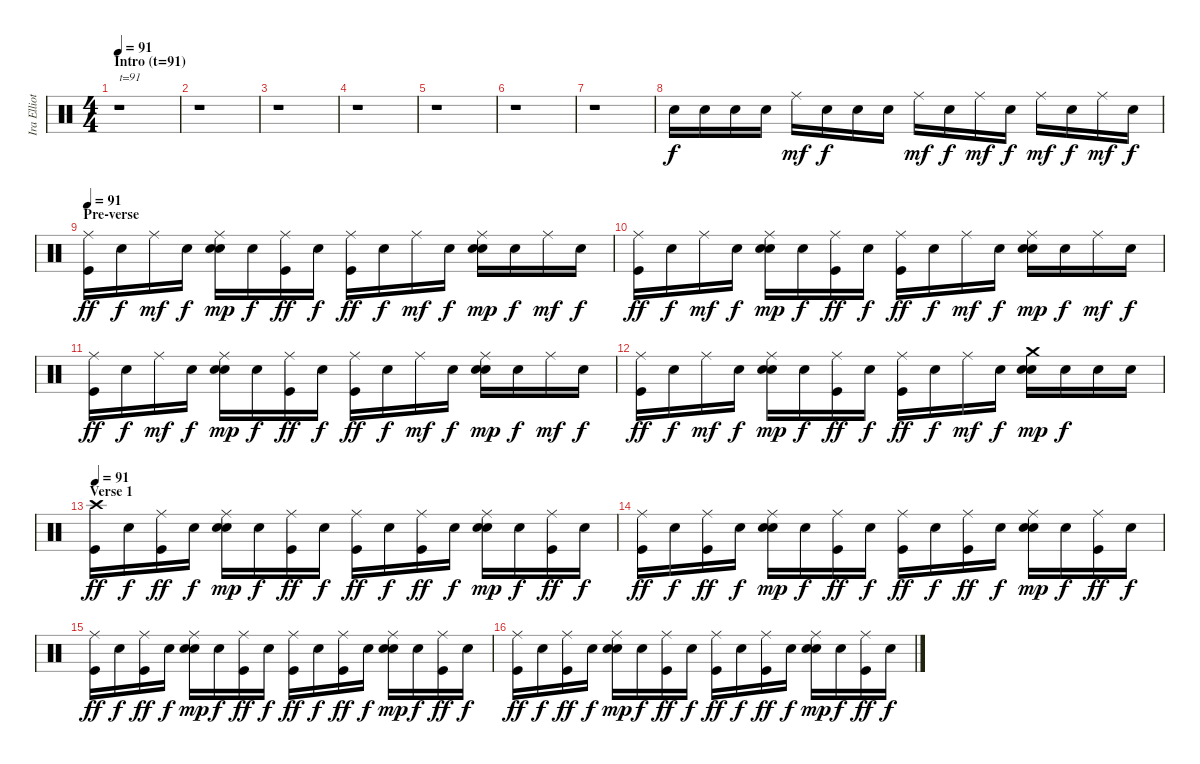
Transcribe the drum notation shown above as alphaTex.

\track ("Ira Elliot - Drums" "Ira Elliot") {instrument percussion}
\staff {score}
\articulation defaults
\ts (4 4)
\section ("" "Intro (t=91)")
\tempo 91
\clef neutral
\ks c
r.1{txt "t=91" dy f volume 16 balance 8} |
r.1 |
r.1 |
r.1 |
\section ("" "")
r.1 |
r.1 |
r.1 |
"Snare (hit)".16 "Snare (hit)".16 "Snare (hit)".16 "Snare (hit)".16 "Ride (middle)".16{dy mf} "Snare (hit)".16{dy f} "Snare (hit)".16 "Snare (hit)".16 "Ride (middle)".16{dy mf} "Snare (hit)".16{dy f} "Ride (middle)".16{dy mf} "Snare (hit)".16{dy f} "Ride (middle)".16{dy mf} "Snare (hit)".16{dy f} "Ride (middle)".16{dy mf} "Snare (hit)".16{dy f} |
\section ("" "Pre-verse")
\tempo 91
("Ride (middle)" "Kick (hit)").16{dy ff volume 16 balance 8} "Snare (hit)".16{dy f} "Ride (middle)".16{dy mf} "Snare (hit)".16{dy f} ("Ride (middle)" "Electric Snare (hit)" "Snare (hit) 2").16{dy mp} "Snare (hit)".16{dy f} ("Ride (middle)" "Kick (hit)").16{dy ff} "Snare (hit)".16{dy f} ("Ride (middle)" "Kick (hit)").16{dy ff} "Snare (hit)".16{dy f} "Ride (middle)".16{dy mf} "Snare (hit)".16{dy f} ("Ride (middle)" "Electric Snare (hit)" "Snare (hit) 2").16{dy mp} "Snare (hit)".16{dy f} "Ride (middle)".16{dy mf} "Snare (hit)".16{dy f} |
("Ride (middle)" "Kick (hit)").16{dy ff} "Snare (hit)".16{dy f} "Ride (middle)".16{dy mf} "Snare (hit)".16{dy f} ("Ride (middle)" "Electric Snare (hit)" "Snare (hit) 2").16{dy mp} "Snare (hit)".16{dy f} ("Ride (middle)" "Kick (hit)").16{dy ff} "Snare (hit)".16{dy f} ("Ride (middle)" "Kick (hit)").16{dy ff} "Snare (hit)".16{dy f} "Ride (middle)".16{dy mf} "Snare (hit)".16{dy f} ("Ride (middle)" "Electric Snare (hit)" "Snare (hit) 2").16{dy mp} "Snare (hit)".16{dy f} "Ride (middle)".16{dy mf} "Snare (hit)".16{dy f} |
("Ride (middle)" "Kick (hit)").16{dy ff} "Snare (hit)".16{dy f} "Ride (middle)".16{dy mf} "Snare (hit)".16{dy f} ("Ride (middle)" "Electric Snare (hit)" "Snare (hit) 2").16{dy mp} "Snare (hit)".16{dy f} ("Ride (middle)" "Kick (hit)").16{dy ff} "Snare (hit)".16{dy f} ("Ride (middle)" "Kick (hit)").16{dy ff} "Snare (hit)".16{dy f} "Ride (middle)".16{dy mf} "Snare (hit)".16{dy f} ("Ride (middle)" "Electric Snare (hit)" "Snare (hit) 2").16{dy mp} "Snare (hit)".16{dy f} "Ride (middle)".16{dy mf} "Snare (hit)".16{dy f} |
("Ride (middle)" "Kick (hit)").16{dy ff} "Snare (hit)".16{dy f} "Ride (middle)".16{dy mf} "Snare (hit)".16{dy f} ("Ride (middle)" "Electric Snare (hit)" "Snare (hit) 2").16{dy mp} "Snare (hit)".16{dy f} ("Ride (middle)" "Kick (hit)").16{dy ff} "Snare (hit)".16{dy f} ("Ride (middle)" "Kick (hit)").16{dy ff} "Snare (hit)".16{dy f} "Ride (middle)".16{dy mf} "Snare (hit)".16{dy f} ("Crash medium (hit)" "Electric Snare (hit)" "Snare (hit) 2").16{dy mp} "Snare (hit)".16{dy f} "Snare (hit)".16 "Snare (hit)".16 |
\section ("" "Verse 1")
\tempo 91
("Crash high (hit)" "Kick (hit)").16{dy ff volume 16 balance 8} "Snare (hit)".16{dy f} ("Ride (middle)" "Kick (hit)").16{dy ff} "Snare (hit)".16{dy f} ("Ride (middle)" "Electric Snare (hit)" "Snare (hit) 2").16{dy mp} "Snare (hit)".16{dy f} ("Ride (middle)" "Kick (hit)").16{dy ff} "Snare (hit)".16{dy f} ("Ride (middle)" "Kick (hit)").16{dy ff} "Snare (hit)".16{dy f} ("Ride (middle)" "Kick (hit)").16{dy ff} "Snare (hit)".16{dy f} ("Ride (middle)" "Electric Snare (hit)" "Snare (hit) 2").16{dy mp} "Snare (hit)".16{dy f} ("Ride (middle)" "Kick (hit)").16{dy ff} "Snare (hit)".16{dy f} |
("Ride (middle)" "Kick (hit)").16{dy ff} "Snare (hit)".16{dy f} ("Ride (middle)" "Kick (hit)").16{dy ff} "Snare (hit)".16{dy f} ("Ride (middle)" "Electric Snare (hit)" "Snare (hit) 2").16{dy mp} "Snare (hit)".16{dy f} ("Ride (middle)" "Kick (hit)").16{dy ff} "Snare (hit)".16{dy f} ("Ride (middle)" "Kick (hit)").16{dy ff} "Snare (hit)".16{dy f} ("Ride (middle)" "Kick (hit)").16{dy ff} "Snare (hit)".16{dy f} ("Ride (middle)" "Electric Snare (hit)" "Snare (hit) 2").16{dy mp} "Snare (hit)".16{dy f} ("Ride (middle)" "Kick (hit)").16{dy ff} "Snare (hit)".16{dy f} |
("Ride (middle)" "Kick (hit)").16{dy ff} "Snare (hit)".16{dy f} ("Ride (middle)" "Kick (hit)").16{dy ff} "Snare (hit)".16{dy f} ("Ride (middle)" "Electric Snare (hit)" "Snare (hit) 2").16{dy mp} "Snare (hit)".16{dy f} ("Ride (middle)" "Kick (hit)").16{dy ff} "Snare (hit)".16{dy f} ("Ride (middle)" "Kick (hit)").16{dy ff} "Snare (hit)".16{dy f} ("Ride (middle)" "Kick (hit)").16{dy ff} "Snare (hit)".16{dy f} ("Ride (middle)" "Electric Snare (hit)" "Snare (hit) 2").16{dy mp} "Snare (hit)".16{dy f} ("Ride (middle)" "Kick (hit)").16{dy ff} "Snare (hit)".16{dy f} |
("Ride (middle)" "Kick (hit)").16{dy ff} "Snare (hit)".16{dy f} ("Ride (middle)" "Kick (hit)").16{dy ff} "Snare (hit)".16{dy f} ("Ride (middle)" "Electric Snare (hit)" "Snare (hit) 2").16{dy mp} "Snare (hit)".16{dy f} ("Ride (middle)" "Kick (hit)").16{dy ff} "Snare (hit)".16{dy f} ("Ride (middle)" "Kick (hit)").16{dy ff} "Snare (hit)".16{dy f} ("Ride (middle)" "Kick (hit)").16{dy ff} "Snare (hit)".16{dy f} ("Ride (middle)" "Electric Snare (hit)" "Snare (hit) 2").16{dy mp} "Snare (hit)".16{dy f} ("Ride (middle)" "Kick (hit)").16{dy ff} "Snare (hit)".16{dy f}
